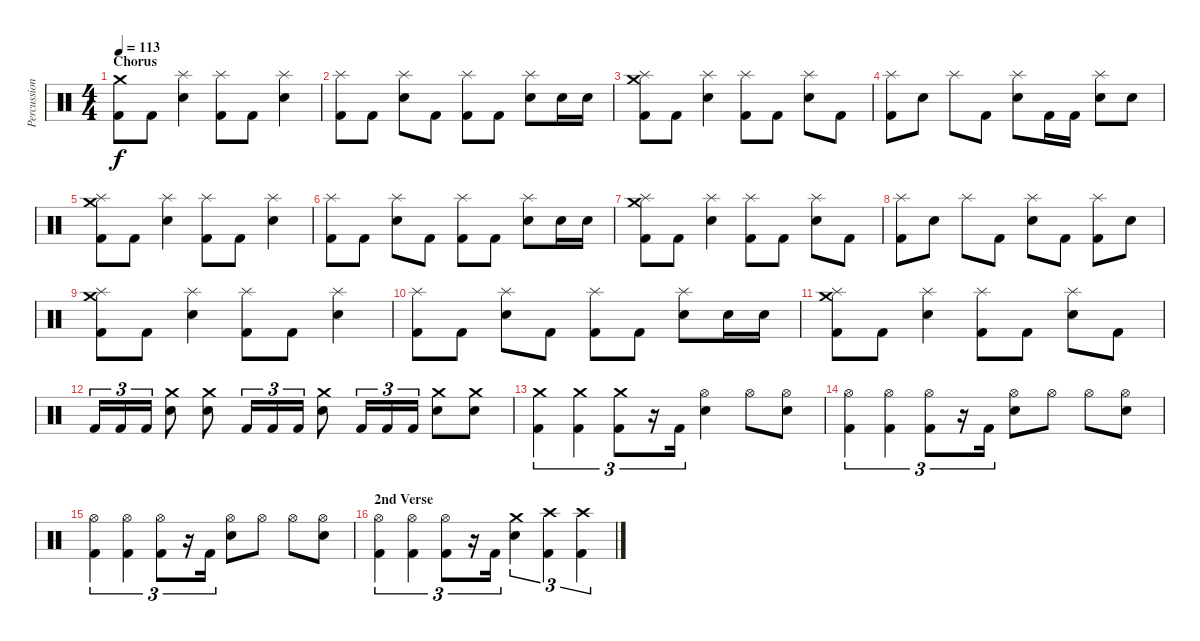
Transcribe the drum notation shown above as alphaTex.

\track ("Percussion" "Percussion") {instrument percussion}
\staff {score}
\articulation defaults
\ts (4 4)
\section ("" "Chorus")
\tempo 113
\clef neutral
\ks c
("Kick (hit) 2" "Crash medium (hit)").8{dy f} "Kick (hit) 2".8 ("Snare (hit) 2" "Splash (hit)").4 ("Kick (hit) 2" "Splash (hit)").8 "Kick (hit) 2".8 ("Snare (hit) 2" "Splash (hit)").4 |
("Kick (hit) 2" "Splash (hit)").8 "Kick (hit) 2".8 ("Snare (hit) 2" "Splash (hit)").8 "Kick (hit) 2".8 ("Kick (hit) 2" "Splash (hit)").8 "Kick (hit) 2".8 ("Snare (hit) 2" "Splash (hit)").8 "Snare (hit) 2".16 "Snare (hit) 2".16 |
("Kick (hit) 2" "Splash (hit)" "Crash medium (hit)").8 "Kick (hit) 2".8 ("Snare (hit) 2" "Splash (hit)").4 ("Kick (hit) 2" "Splash (hit)").8 "Kick (hit) 2".8 ("Snare (hit) 2" "Splash (hit)").8 "Kick (hit) 2".8 |
("Kick (hit) 2" "Splash (hit)").8 "Snare (hit) 2".8 "Splash (hit)".8 "Kick (hit) 2".8 ("Snare (hit) 2" "Splash (hit)").8 "Kick (hit) 2".16 "Kick (hit) 2".16 ("Snare (hit) 2" "Splash (hit)").8 "Snare (hit) 2".8 |
("Kick (hit) 2" "Splash (hit)" "Crash medium (hit)").8 "Kick (hit) 2".8 ("Snare (hit) 2" "Splash (hit)").4 ("Kick (hit) 2" "Splash (hit)").8 "Kick (hit) 2".8 ("Snare (hit) 2" "Splash (hit)").4 |
("Kick (hit) 2" "Splash (hit)").8 "Kick (hit) 2".8 ("Snare (hit) 2" "Splash (hit)").8 "Kick (hit) 2".8 ("Kick (hit) 2" "Splash (hit)").8 "Kick (hit) 2".8 ("Snare (hit) 2" "Splash (hit)").8 "Snare (hit) 2".16 "Snare (hit) 2".16 |
("Kick (hit) 2" "Splash (hit)" "Crash medium (hit)").8 "Kick (hit) 2".8 ("Snare (hit) 2" "Splash (hit)").4 ("Kick (hit) 2" "Splash (hit)").8 "Kick (hit) 2".8 ("Snare (hit) 2" "Splash (hit)").8 "Kick (hit) 2".8 |
("Kick (hit) 2" "Splash (hit)").8 "Snare (hit) 2".8 "Splash (hit)".8 "Kick (hit) 2".8 ("Snare (hit) 2" "Splash (hit)").8 "Kick (hit) 2".8 ("Kick (hit) 2" "Splash (hit)").8 "Snare (hit) 2".8 |
("Kick (hit) 2" "Splash (hit)" "Crash medium (hit)").8 "Kick (hit) 2".8 ("Snare (hit) 2" "Splash (hit)").4 ("Kick (hit) 2" "Splash (hit)").8 "Kick (hit) 2".8 ("Snare (hit) 2" "Splash (hit)").4 |
("Kick (hit) 2" "Splash (hit)").8 "Kick (hit) 2".8 ("Snare (hit) 2" "Splash (hit)").8 "Kick (hit) 2".8 ("Kick (hit) 2" "Splash (hit)").8 "Kick (hit) 2".8 ("Snare (hit) 2" "Splash (hit)").8 "Snare (hit) 2".16 "Snare (hit) 2".16 |
("Kick (hit) 2" "Splash (hit)" "Crash medium (hit)").8 "Kick (hit) 2".8 ("Snare (hit) 2" "Splash (hit)").4 ("Kick (hit) 2" "Splash (hit)").8 "Kick (hit) 2".8 ("Snare (hit) 2" "Splash (hit)").8 "Kick (hit) 2".8 |
"Kick (hit) 2".16{tu (3 2)} "Kick (hit) 2".16{tu (3 2)} "Kick (hit) 2".16{tu (3 2)} ("Electric Snare (hit)" "Crash medium (hit)").8 ("Electric Snare (hit)" "Crash medium (hit)").8 "Kick (hit) 2".16{tu (3 2)} "Kick (hit) 2".16{tu (3 2)} "Kick (hit) 2".16{tu (3 2)} ("Electric Snare (hit)" "Crash medium (hit)").8 "Kick (hit) 2".16{tu (3 2)} "Kick (hit) 2".16{tu (3 2)} "Kick (hit) 2".16{tu (3 2)} ("Electric Snare (hit)" "Crash medium (hit)").8 ("Electric Snare (hit)" "Crash medium (hit)").8 |
("Kick (hit) 2" "Crash medium (hit)").4{tu (3 2)} ("Kick (hit) 2" "Crash medium (hit)").4{tu (3 2)} ("Kick (hit) 2" "Crash medium (hit)").8{tu (3 2)} r.16{tu (3 2)} "Kick (hit) 2".16{tu (3 2)} ("Electric Snare (hit)" "Hi-Hat (open)").4 "Hi-Hat (open)".8 ("Electric Snare (hit)" "Hi-Hat (open)").8 |
("Kick (hit) 2" "Hi-Hat (open)").4{tu (3 2)} ("Kick (hit) 2" "Hi-Hat (open)").4{tu (3 2)} ("Kick (hit) 2" "Hi-Hat (open)").8{tu (3 2)} r.16{tu (3 2)} "Kick (hit) 2".16{tu (3 2)} ("Electric Snare (hit)" "Hi-Hat (open)").8 "Hi-Hat (open)".8 "Hi-Hat (open)".8 ("Electric Snare (hit)" "Hi-Hat (open)").8 |
("Kick (hit) 2" "Hi-Hat (open)").4{tu (3 2)} ("Kick (hit) 2" "Hi-Hat (open)").4{tu (3 2)} ("Kick (hit) 2" "Hi-Hat (open)").8{tu (3 2)} r.16{tu (3 2)} "Kick (hit) 2".16{tu (3 2)} ("Electric Snare (hit)" "Hi-Hat (open)").8 "Hi-Hat (open)".8 "Hi-Hat (open)".8 ("Electric Snare (hit)" "Hi-Hat (open)").8 |
\section ("" "2nd Verse")
("Kick (hit) 2" "Hi-Hat (open)").4{tu (3 2)} ("Kick (hit) 2" "Hi-Hat (open)").4{tu (3 2)} ("Kick (hit) 2" "Hi-Hat (open)").8{tu (3 2)} r.16{tu (3 2)} "Kick (hit) 2".16{tu (3 2)} ("Electric Snare (hit)" "Crash medium (hit)").4{tu (3 2)} ("Kick (hit) 2" "Crash high (hit)").4{tu (3 2)} ("Kick (hit) 2" "Crash high (hit)").4{tu (3 2)}
